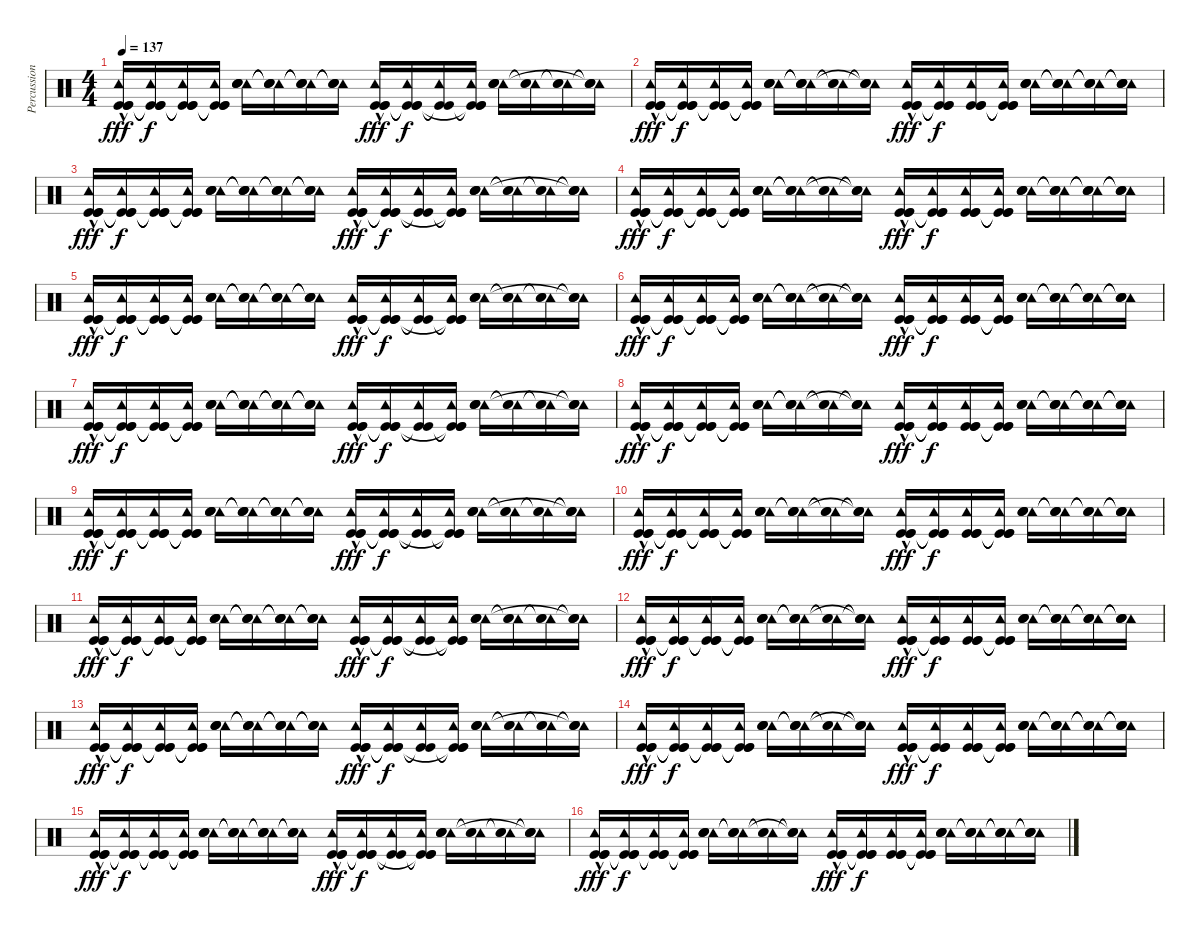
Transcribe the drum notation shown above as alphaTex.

\track ("Percussion" "Percussion") {instrument percussion}
\staff {score}
\articulation defaults
\ts (4 4)
\tempo 137
\clef neutral
\ks c
("Tambourine (hit)"{hac} "Kick (hit)" "Kick (hit)" "Kick (hit)").16{dy fff} ("Tambourine (hit)" "Kick (hit)"{t} "Kick (hit)"{t} "Kick (hit)"{t}).16{dy f} ("Tambourine (hit)" "Kick (hit)"{t} "Kick (hit)"{t} "Kick (hit)"{t}).16 ("Tambourine (hit)" "Kick (hit)"{t} "Kick (hit)"{t} "Kick (hit)"{t}).16 ("Tambourine (hit)" "Snare (hit) 2" "Snare (hit) 2" "Snare (hit) 2").16 ("Tambourine (hit)" "Snare (hit) 2"{t} "Snare (hit) 2"{t} "Snare (hit) 2"{t}).16 ("Tambourine (hit)" "Snare (hit) 2"{t} "Snare (hit) 2"{t} "Snare (hit) 2"{t}).16 ("Tambourine (hit)" "Snare (hit) 2"{t} "Snare (hit) 2"{t} "Snare (hit) 2"{t}).16 ("Tambourine (hit)"{hac} "Kick (hit)" "Kick (hit)" "Kick (hit)").16{dy fff} ("Tambourine (hit)" "Kick (hit)"{t} "Kick (hit)"{t} "Kick (hit)"{t}).16{dy f} ("Tambourine (hit)" "Kick (hit)"{t} "Kick (hit)"{t}).16 ("Tambourine (hit)" "Kick (hit)"{t} "Kick (hit)"{t} "Kick (hit)"{t}).16 ("Tambourine (hit)" "Snare (hit) 2" "Snare (hit) 2" "Snare (hit) 2").16 ("Tambourine (hit)" "Snare (hit) 2"{t} "Snare (hit) 2"{t}).16 ("Tambourine (hit)" "Snare (hit) 2"{t} "Snare (hit) 2"{t}).16 ("Tambourine (hit)" "Snare (hit) 2"{t} "Snare (hit) 2"{t} "Snare (hit) 2"{t}).16 |
("Tambourine (hit)"{hac} "Kick (hit)" "Kick (hit)" "Kick (hit)").16{dy fff} ("Tambourine (hit)" "Kick (hit)"{t} "Kick (hit)"{t} "Kick (hit)"{t}).16{dy f} ("Tambourine (hit)" "Kick (hit)"{t} "Kick (hit)"{t} "Kick (hit)"{t}).16 ("Tambourine (hit)" "Kick (hit)"{t} "Kick (hit)"{t} "Kick (hit)"{t}).16 ("Tambourine (hit)" "Snare (hit) 2" "Snare (hit) 2" "Snare (hit) 2").16 ("Tambourine (hit)" "Snare (hit) 2"{t} "Snare (hit) 2"{t} "Snare (hit) 2"{t}).16 ("Tambourine (hit)" "Snare (hit) 2"{t} "Snare (hit) 2"{t}).16 ("Tambourine (hit)" "Snare (hit) 2"{t} "Snare (hit) 2"{t} "Snare (hit) 2"{t}).16 ("Tambourine (hit)"{hac} "Kick (hit)" "Kick (hit)" "Kick (hit)").16{dy fff} ("Tambourine (hit)" "Kick (hit)"{t} "Kick (hit)"{t} "Kick (hit)"{t}).16{dy f} ("Tambourine (hit)" "Kick (hit)" "Kick (hit)" "Kick (hit)").16 ("Tambourine (hit)" "Kick (hit)"{t} "Kick (hit)"{t} "Kick (hit)"{t}).16 ("Tambourine (hit)" "Snare (hit) 2" "Snare (hit) 2" "Snare (hit) 2").16 ("Tambourine (hit)" "Snare (hit) 2"{t} "Snare (hit) 2"{t} "Snare (hit) 2"{t}).16 ("Tambourine (hit)" "Snare (hit) 2"{t} "Snare (hit) 2"{t} "Snare (hit) 2"{t}).16 ("Tambourine (hit)" "Snare (hit) 2"{t} "Snare (hit) 2"{t} "Snare (hit) 2"{t}).16 |
("Tambourine (hit)"{hac} "Kick (hit)" "Kick (hit)" "Kick (hit)").16{dy fff} ("Tambourine (hit)" "Kick (hit)"{t} "Kick (hit)"{t} "Kick (hit)"{t}).16{dy f} ("Tambourine (hit)" "Kick (hit)"{t} "Kick (hit)"{t} "Kick (hit)"{t}).16 ("Tambourine (hit)" "Kick (hit)"{t} "Kick (hit)"{t} "Kick (hit)"{t}).16 ("Tambourine (hit)" "Snare (hit) 2" "Snare (hit) 2" "Snare (hit) 2").16 ("Tambourine (hit)" "Snare (hit) 2"{t} "Snare (hit) 2"{t} "Snare (hit) 2"{t}).16 ("Tambourine (hit)" "Snare (hit) 2"{t} "Snare (hit) 2"{t} "Snare (hit) 2"{t}).16 ("Tambourine (hit)" "Snare (hit) 2"{t} "Snare (hit) 2"{t} "Snare (hit) 2"{t}).16 ("Tambourine (hit)"{hac} "Kick (hit)" "Kick (hit)" "Kick (hit)").16{dy fff} ("Tambourine (hit)" "Kick (hit)"{t} "Kick (hit)"{t} "Kick (hit)"{t}).16{dy f} ("Tambourine (hit)" "Kick (hit)"{t} "Kick (hit)"{t}).16 ("Tambourine (hit)" "Kick (hit)"{t} "Kick (hit)"{t} "Kick (hit)"{t}).16 ("Tambourine (hit)" "Snare (hit) 2" "Snare (hit) 2" "Snare (hit) 2").16 ("Tambourine (hit)" "Snare (hit) 2"{t} "Snare (hit) 2"{t}).16 ("Tambourine (hit)" "Snare (hit) 2"{t} "Snare (hit) 2"{t}).16 ("Tambourine (hit)" "Snare (hit) 2"{t} "Snare (hit) 2"{t} "Snare (hit) 2"{t}).16 |
("Tambourine (hit)"{hac} "Kick (hit)" "Kick (hit)" "Kick (hit)").16{dy fff} ("Tambourine (hit)" "Kick (hit)"{t} "Kick (hit)"{t} "Kick (hit)"{t}).16{dy f} ("Tambourine (hit)" "Kick (hit)"{t} "Kick (hit)"{t} "Kick (hit)"{t}).16 ("Tambourine (hit)" "Kick (hit)"{t} "Kick (hit)"{t} "Kick (hit)"{t}).16 ("Tambourine (hit)" "Snare (hit) 2" "Snare (hit) 2" "Snare (hit) 2").16 ("Tambourine (hit)" "Snare (hit) 2"{t} "Snare (hit) 2"{t} "Snare (hit) 2"{t}).16 ("Tambourine (hit)" "Snare (hit) 2"{t} "Snare (hit) 2"{t}).16 ("Tambourine (hit)" "Snare (hit) 2"{t} "Snare (hit) 2"{t} "Snare (hit) 2"{t}).16 ("Tambourine (hit)"{hac} "Kick (hit)" "Kick (hit)" "Kick (hit)").16{dy fff} ("Tambourine (hit)" "Kick (hit)"{t} "Kick (hit)"{t} "Kick (hit)"{t}).16{dy f} ("Tambourine (hit)" "Kick (hit)" "Kick (hit)" "Kick (hit)").16 ("Tambourine (hit)" "Kick (hit)"{t} "Kick (hit)"{t} "Kick (hit)"{t}).16 ("Tambourine (hit)" "Snare (hit) 2" "Snare (hit) 2" "Snare (hit) 2").16 ("Tambourine (hit)" "Snare (hit) 2"{t} "Snare (hit) 2"{t} "Snare (hit) 2"{t}).16 ("Tambourine (hit)" "Snare (hit) 2"{t} "Snare (hit) 2"{t} "Snare (hit) 2"{t}).16 ("Tambourine (hit)" "Snare (hit) 2"{t} "Snare (hit) 2"{t} "Snare (hit) 2"{t}).16 |
("Tambourine (hit)"{hac} "Kick (hit)" "Kick (hit)" "Kick (hit)").16{dy fff} ("Tambourine (hit)" "Kick (hit)"{t} "Kick (hit)"{t} "Kick (hit)"{t}).16{dy f} ("Tambourine (hit)" "Kick (hit)"{t} "Kick (hit)"{t} "Kick (hit)"{t}).16 ("Tambourine (hit)" "Kick (hit)"{t} "Kick (hit)"{t} "Kick (hit)"{t}).16 ("Tambourine (hit)" "Snare (hit) 2" "Snare (hit) 2" "Snare (hit) 2").16 ("Tambourine (hit)" "Snare (hit) 2"{t} "Snare (hit) 2"{t} "Snare (hit) 2"{t}).16 ("Tambourine (hit)" "Snare (hit) 2"{t} "Snare (hit) 2"{t} "Snare (hit) 2"{t}).16 ("Tambourine (hit)" "Snare (hit) 2"{t} "Snare (hit) 2"{t} "Snare (hit) 2"{t}).16 ("Tambourine (hit)"{hac} "Kick (hit)" "Kick (hit)" "Kick (hit)").16{dy fff} ("Tambourine (hit)" "Kick (hit)"{t} "Kick (hit)"{t} "Kick (hit)"{t}).16{dy f} ("Tambourine (hit)" "Kick (hit)"{t} "Kick (hit)"{t}).16 ("Tambourine (hit)" "Kick (hit)"{t} "Kick (hit)"{t} "Kick (hit)"{t}).16 ("Tambourine (hit)" "Snare (hit) 2" "Snare (hit) 2" "Snare (hit) 2").16 ("Tambourine (hit)" "Snare (hit) 2"{t} "Snare (hit) 2"{t}).16 ("Tambourine (hit)" "Snare (hit) 2"{t} "Snare (hit) 2"{t}).16 ("Tambourine (hit)" "Snare (hit) 2"{t} "Snare (hit) 2"{t} "Snare (hit) 2"{t}).16 |
("Tambourine (hit)"{hac} "Kick (hit)" "Kick (hit)" "Kick (hit)").16{dy fff} ("Tambourine (hit)" "Kick (hit)"{t} "Kick (hit)"{t} "Kick (hit)"{t}).16{dy f} ("Tambourine (hit)" "Kick (hit)"{t} "Kick (hit)"{t} "Kick (hit)"{t}).16 ("Tambourine (hit)" "Kick (hit)"{t} "Kick (hit)"{t} "Kick (hit)"{t}).16 ("Tambourine (hit)" "Snare (hit) 2" "Snare (hit) 2" "Snare (hit) 2").16 ("Tambourine (hit)" "Snare (hit) 2"{t} "Snare (hit) 2"{t} "Snare (hit) 2"{t}).16 ("Tambourine (hit)" "Snare (hit) 2"{t} "Snare (hit) 2"{t}).16 ("Tambourine (hit)" "Snare (hit) 2"{t} "Snare (hit) 2"{t} "Snare (hit) 2"{t}).16 ("Tambourine (hit)"{hac} "Kick (hit)" "Kick (hit)" "Kick (hit)").16{dy fff} ("Tambourine (hit)" "Kick (hit)"{t} "Kick (hit)"{t} "Kick (hit)"{t}).16{dy f} ("Tambourine (hit)" "Kick (hit)" "Kick (hit)" "Kick (hit)").16 ("Tambourine (hit)" "Kick (hit)"{t} "Kick (hit)"{t} "Kick (hit)"{t}).16 ("Tambourine (hit)" "Snare (hit) 2" "Snare (hit) 2" "Snare (hit) 2").16 ("Tambourine (hit)" "Snare (hit) 2"{t} "Snare (hit) 2"{t} "Snare (hit) 2"{t}).16 ("Tambourine (hit)" "Snare (hit) 2"{t} "Snare (hit) 2"{t} "Snare (hit) 2"{t}).16 ("Tambourine (hit)" "Snare (hit) 2"{t} "Snare (hit) 2"{t} "Snare (hit) 2"{t}).16 |
("Tambourine (hit)"{hac} "Kick (hit)" "Kick (hit)" "Kick (hit)").16{dy fff} ("Tambourine (hit)" "Kick (hit)"{t} "Kick (hit)"{t} "Kick (hit)"{t}).16{dy f} ("Tambourine (hit)" "Kick (hit)"{t} "Kick (hit)"{t} "Kick (hit)"{t}).16 ("Tambourine (hit)" "Kick (hit)"{t} "Kick (hit)"{t} "Kick (hit)"{t}).16 ("Tambourine (hit)" "Snare (hit) 2" "Snare (hit) 2" "Snare (hit) 2").16 ("Tambourine (hit)" "Snare (hit) 2"{t} "Snare (hit) 2"{t} "Snare (hit) 2"{t}).16 ("Tambourine (hit)" "Snare (hit) 2"{t} "Snare (hit) 2"{t} "Snare (hit) 2"{t}).16 ("Tambourine (hit)" "Snare (hit) 2"{t} "Snare (hit) 2"{t} "Snare (hit) 2"{t}).16 ("Tambourine (hit)"{hac} "Kick (hit)" "Kick (hit)" "Kick (hit)").16{dy fff} ("Tambourine (hit)" "Kick (hit)"{t} "Kick (hit)"{t} "Kick (hit)"{t}).16{dy f} ("Tambourine (hit)" "Kick (hit)"{t} "Kick (hit)"{t}).16 ("Tambourine (hit)" "Kick (hit)"{t} "Kick (hit)"{t} "Kick (hit)"{t}).16 ("Tambourine (hit)" "Snare (hit) 2" "Snare (hit) 2" "Snare (hit) 2").16 ("Tambourine (hit)" "Snare (hit) 2"{t} "Snare (hit) 2"{t}).16 ("Tambourine (hit)" "Snare (hit) 2"{t} "Snare (hit) 2"{t}).16 ("Tambourine (hit)" "Snare (hit) 2"{t} "Snare (hit) 2"{t} "Snare (hit) 2"{t}).16 |
("Tambourine (hit)"{hac} "Kick (hit)" "Kick (hit)" "Kick (hit)").16{dy fff} ("Tambourine (hit)" "Kick (hit)"{t} "Kick (hit)"{t} "Kick (hit)"{t}).16{dy f} ("Tambourine (hit)" "Kick (hit)"{t} "Kick (hit)"{t} "Kick (hit)"{t}).16 ("Tambourine (hit)" "Kick (hit)"{t} "Kick (hit)"{t} "Kick (hit)"{t}).16 ("Tambourine (hit)" "Snare (hit) 2" "Snare (hit) 2" "Snare (hit) 2").16 ("Tambourine (hit)" "Snare (hit) 2"{t} "Snare (hit) 2"{t} "Snare (hit) 2"{t}).16 ("Tambourine (hit)" "Snare (hit) 2"{t} "Snare (hit) 2"{t}).16 ("Tambourine (hit)" "Snare (hit) 2"{t} "Snare (hit) 2"{t} "Snare (hit) 2"{t}).16 ("Tambourine (hit)"{hac} "Kick (hit)" "Kick (hit)" "Kick (hit)").16{dy fff} ("Tambourine (hit)" "Kick (hit)"{t} "Kick (hit)"{t} "Kick (hit)"{t}).16{dy f} ("Tambourine (hit)" "Kick (hit)" "Kick (hit)" "Kick (hit)").16 ("Tambourine (hit)" "Kick (hit)"{t} "Kick (hit)"{t} "Kick (hit)"{t}).16 ("Tambourine (hit)" "Snare (hit) 2" "Snare (hit) 2" "Snare (hit) 2").16 ("Tambourine (hit)" "Snare (hit) 2"{t} "Snare (hit) 2"{t} "Snare (hit) 2"{t}).16 ("Tambourine (hit)" "Snare (hit) 2"{t} "Snare (hit) 2"{t} "Snare (hit) 2"{t}).16 ("Tambourine (hit)" "Snare (hit) 2"{t} "Snare (hit) 2"{t} "Snare (hit) 2"{t}).16 |
("Tambourine (hit)"{hac} "Kick (hit)" "Kick (hit)" "Kick (hit)").16{dy fff} ("Tambourine (hit)" "Kick (hit)"{t} "Kick (hit)"{t} "Kick (hit)"{t}).16{dy f} ("Tambourine (hit)" "Kick (hit)"{t} "Kick (hit)"{t} "Kick (hit)"{t}).16 ("Tambourine (hit)" "Kick (hit)"{t} "Kick (hit)"{t} "Kick (hit)"{t}).16 ("Tambourine (hit)" "Snare (hit) 2" "Snare (hit) 2" "Snare (hit) 2").16 ("Tambourine (hit)" "Snare (hit) 2"{t} "Snare (hit) 2"{t} "Snare (hit) 2"{t}).16 ("Tambourine (hit)" "Snare (hit) 2"{t} "Snare (hit) 2"{t} "Snare (hit) 2"{t}).16 ("Tambourine (hit)" "Snare (hit) 2"{t} "Snare (hit) 2"{t} "Snare (hit) 2"{t}).16 ("Tambourine (hit)"{hac} "Kick (hit)" "Kick (hit)" "Kick (hit)").16{dy fff} ("Tambourine (hit)" "Kick (hit)"{t} "Kick (hit)"{t} "Kick (hit)"{t}).16{dy f} ("Tambourine (hit)" "Kick (hit)"{t} "Kick (hit)"{t}).16 ("Tambourine (hit)" "Kick (hit)"{t} "Kick (hit)"{t} "Kick (hit)"{t}).16 ("Tambourine (hit)" "Snare (hit) 2" "Snare (hit) 2" "Snare (hit) 2").16 ("Tambourine (hit)" "Snare (hit) 2"{t} "Snare (hit) 2"{t}).16 ("Tambourine (hit)" "Snare (hit) 2"{t} "Snare (hit) 2"{t}).16 ("Tambourine (hit)" "Snare (hit) 2"{t} "Snare (hit) 2"{t} "Snare (hit) 2"{t}).16 |
("Tambourine (hit)"{hac} "Kick (hit)" "Kick (hit)" "Kick (hit)").16{dy fff} ("Tambourine (hit)" "Kick (hit)"{t} "Kick (hit)"{t} "Kick (hit)"{t}).16{dy f} ("Tambourine (hit)" "Kick (hit)"{t} "Kick (hit)"{t} "Kick (hit)"{t}).16 ("Tambourine (hit)" "Kick (hit)"{t} "Kick (hit)"{t} "Kick (hit)"{t}).16 ("Tambourine (hit)" "Snare (hit) 2" "Snare (hit) 2" "Snare (hit) 2").16 ("Tambourine (hit)" "Snare (hit) 2"{t} "Snare (hit) 2"{t} "Snare (hit) 2"{t}).16 ("Tambourine (hit)" "Snare (hit) 2"{t} "Snare (hit) 2"{t}).16 ("Tambourine (hit)" "Snare (hit) 2"{t} "Snare (hit) 2"{t} "Snare (hit) 2"{t}).16 ("Tambourine (hit)"{hac} "Kick (hit)" "Kick (hit)" "Kick (hit)").16{dy fff} ("Tambourine (hit)" "Kick (hit)"{t} "Kick (hit)"{t} "Kick (hit)"{t}).16{dy f} ("Tambourine (hit)" "Kick (hit)" "Kick (hit)" "Kick (hit)").16 ("Tambourine (hit)" "Kick (hit)"{t} "Kick (hit)"{t} "Kick (hit)"{t}).16 ("Tambourine (hit)" "Snare (hit) 2" "Snare (hit) 2" "Snare (hit) 2").16 ("Tambourine (hit)" "Snare (hit) 2"{t} "Snare (hit) 2"{t} "Snare (hit) 2"{t}).16 ("Tambourine (hit)" "Snare (hit) 2"{t} "Snare (hit) 2"{t} "Snare (hit) 2"{t}).16 ("Tambourine (hit)" "Snare (hit) 2"{t} "Snare (hit) 2"{t} "Snare (hit) 2"{t}).16 |
("Tambourine (hit)"{hac} "Kick (hit)" "Kick (hit)" "Kick (hit)").16{dy fff} ("Tambourine (hit)" "Kick (hit)"{t} "Kick (hit)"{t} "Kick (hit)"{t}).16{dy f} ("Tambourine (hit)" "Kick (hit)"{t} "Kick (hit)"{t} "Kick (hit)"{t}).16 ("Tambourine (hit)" "Kick (hit)"{t} "Kick (hit)"{t} "Kick (hit)"{t}).16 ("Tambourine (hit)" "Snare (hit) 2" "Snare (hit) 2" "Snare (hit) 2").16 ("Tambourine (hit)" "Snare (hit) 2"{t} "Snare (hit) 2"{t} "Snare (hit) 2"{t}).16 ("Tambourine (hit)" "Snare (hit) 2"{t} "Snare (hit) 2"{t} "Snare (hit) 2"{t}).16 ("Tambourine (hit)" "Snare (hit) 2"{t} "Snare (hit) 2"{t} "Snare (hit) 2"{t}).16 ("Tambourine (hit)"{hac} "Kick (hit)" "Kick (hit)" "Kick (hit)").16{dy fff} ("Tambourine (hit)" "Kick (hit)"{t} "Kick (hit)"{t} "Kick (hit)"{t}).16{dy f} ("Tambourine (hit)" "Kick (hit)"{t} "Kick (hit)"{t}).16 ("Tambourine (hit)" "Kick (hit)"{t} "Kick (hit)"{t} "Kick (hit)"{t}).16 ("Tambourine (hit)" "Snare (hit) 2" "Snare (hit) 2" "Snare (hit) 2").16 ("Tambourine (hit)" "Snare (hit) 2"{t} "Snare (hit) 2"{t}).16 ("Tambourine (hit)" "Snare (hit) 2"{t} "Snare (hit) 2"{t}).16 ("Tambourine (hit)" "Snare (hit) 2"{t} "Snare (hit) 2"{t} "Snare (hit) 2"{t}).16 |
("Tambourine (hit)"{hac} "Kick (hit)" "Kick (hit)" "Kick (hit)").16{dy fff} ("Tambourine (hit)" "Kick (hit)"{t} "Kick (hit)"{t} "Kick (hit)"{t}).16{dy f} ("Tambourine (hit)" "Kick (hit)"{t} "Kick (hit)"{t} "Kick (hit)"{t}).16 ("Tambourine (hit)" "Kick (hit)"{t} "Kick (hit)"{t} "Kick (hit)"{t}).16 ("Tambourine (hit)" "Snare (hit) 2" "Snare (hit) 2" "Snare (hit) 2").16 ("Tambourine (hit)" "Snare (hit) 2"{t} "Snare (hit) 2"{t} "Snare (hit) 2"{t}).16 ("Tambourine (hit)" "Snare (hit) 2"{t} "Snare (hit) 2"{t}).16 ("Tambourine (hit)" "Snare (hit) 2"{t} "Snare (hit) 2"{t} "Snare (hit) 2"{t}).16 ("Tambourine (hit)"{hac} "Kick (hit)" "Kick (hit)" "Kick (hit)").16{dy fff} ("Tambourine (hit)" "Kick (hit)"{t} "Kick (hit)"{t} "Kick (hit)"{t}).16{dy f} ("Tambourine (hit)" "Kick (hit)" "Kick (hit)" "Kick (hit)").16 ("Tambourine (hit)" "Kick (hit)"{t} "Kick (hit)"{t} "Kick (hit)"{t}).16 ("Tambourine (hit)" "Snare (hit) 2" "Snare (hit) 2" "Snare (hit) 2").16 ("Tambourine (hit)" "Snare (hit) 2"{t} "Snare (hit) 2"{t} "Snare (hit) 2"{t}).16 ("Tambourine (hit)" "Snare (hit) 2"{t} "Snare (hit) 2"{t} "Snare (hit) 2"{t}).16 ("Tambourine (hit)" "Snare (hit) 2"{t} "Snare (hit) 2"{t} "Snare (hit) 2"{t}).16 |
("Tambourine (hit)"{hac} "Kick (hit)" "Kick (hit)" "Kick (hit)").16{dy fff} ("Tambourine (hit)" "Kick (hit)"{t} "Kick (hit)"{t} "Kick (hit)"{t}).16{dy f} ("Tambourine (hit)" "Kick (hit)"{t} "Kick (hit)"{t} "Kick (hit)"{t}).16 ("Tambourine (hit)" "Kick (hit)"{t} "Kick (hit)"{t} "Kick (hit)"{t}).16 ("Tambourine (hit)" "Snare (hit) 2" "Snare (hit) 2" "Snare (hit) 2").16 ("Tambourine (hit)" "Snare (hit) 2"{t} "Snare (hit) 2"{t} "Snare (hit) 2"{t}).16 ("Tambourine (hit)" "Snare (hit) 2"{t} "Snare (hit) 2"{t} "Snare (hit) 2"{t}).16 ("Tambourine (hit)" "Snare (hit) 2"{t} "Snare (hit) 2"{t} "Snare (hit) 2"{t}).16 ("Tambourine (hit)"{hac} "Kick (hit)" "Kick (hit)" "Kick (hit)").16{dy fff} ("Tambourine (hit)" "Kick (hit)"{t} "Kick (hit)"{t} "Kick (hit)"{t}).16{dy f} ("Tambourine (hit)" "Kick (hit)"{t} "Kick (hit)"{t}).16 ("Tambourine (hit)" "Kick (hit)"{t} "Kick (hit)"{t} "Kick (hit)"{t}).16 ("Tambourine (hit)" "Snare (hit) 2" "Snare (hit) 2" "Snare (hit) 2").16 ("Tambourine (hit)" "Snare (hit) 2"{t} "Snare (hit) 2"{t}).16 ("Tambourine (hit)" "Snare (hit) 2"{t} "Snare (hit) 2"{t}).16 ("Tambourine (hit)" "Snare (hit) 2"{t} "Snare (hit) 2"{t} "Snare (hit) 2"{t}).16 |
("Tambourine (hit)"{hac} "Kick (hit)" "Kick (hit)" "Kick (hit)").16{dy fff} ("Tambourine (hit)" "Kick (hit)"{t} "Kick (hit)"{t} "Kick (hit)"{t}).16{dy f} ("Tambourine (hit)" "Kick (hit)"{t} "Kick (hit)"{t} "Kick (hit)"{t}).16 ("Tambourine (hit)" "Kick (hit)"{t} "Kick (hit)"{t} "Kick (hit)"{t}).16 ("Tambourine (hit)" "Snare (hit) 2" "Snare (hit) 2" "Snare (hit) 2").16 ("Tambourine (hit)" "Snare (hit) 2"{t} "Snare (hit) 2"{t} "Snare (hit) 2"{t}).16 ("Tambourine (hit)" "Snare (hit) 2"{t} "Snare (hit) 2"{t}).16 ("Tambourine (hit)" "Snare (hit) 2"{t} "Snare (hit) 2"{t} "Snare (hit) 2"{t}).16 ("Tambourine (hit)"{hac} "Kick (hit)" "Kick (hit)" "Kick (hit)").16{dy fff} ("Tambourine (hit)" "Kick (hit)"{t} "Kick (hit)"{t} "Kick (hit)"{t}).16{dy f} ("Tambourine (hit)" "Kick (hit)" "Kick (hit)" "Kick (hit)").16 ("Tambourine (hit)" "Kick (hit)"{t} "Kick (hit)"{t} "Kick (hit)"{t}).16 ("Tambourine (hit)" "Snare (hit) 2" "Snare (hit) 2" "Snare (hit) 2").16 ("Tambourine (hit)" "Snare (hit) 2"{t} "Snare (hit) 2"{t} "Snare (hit) 2"{t}).16 ("Tambourine (hit)" "Snare (hit) 2"{t} "Snare (hit) 2"{t} "Snare (hit) 2"{t}).16 ("Tambourine (hit)" "Snare (hit) 2"{t} "Snare (hit) 2"{t} "Snare (hit) 2"{t}).16 |
("Tambourine (hit)"{hac} "Kick (hit)" "Kick (hit)" "Kick (hit)").16{dy fff} ("Tambourine (hit)" "Kick (hit)"{t} "Kick (hit)"{t} "Kick (hit)"{t}).16{dy f} ("Tambourine (hit)" "Kick (hit)"{t} "Kick (hit)"{t} "Kick (hit)"{t}).16 ("Tambourine (hit)" "Kick (hit)"{t} "Kick (hit)"{t} "Kick (hit)"{t}).16 ("Tambourine (hit)" "Snare (hit) 2" "Snare (hit) 2" "Snare (hit) 2").16 ("Tambourine (hit)" "Snare (hit) 2"{t} "Snare (hit) 2"{t} "Snare (hit) 2"{t}).16 ("Tambourine (hit)" "Snare (hit) 2"{t} "Snare (hit) 2"{t} "Snare (hit) 2"{t}).16 ("Tambourine (hit)" "Snare (hit) 2"{t} "Snare (hit) 2"{t} "Snare (hit) 2"{t}).16 ("Tambourine (hit)"{hac} "Kick (hit)" "Kick (hit)" "Kick (hit)").16{dy fff} ("Tambourine (hit)" "Kick (hit)"{t} "Kick (hit)"{t} "Kick (hit)"{t}).16{dy f} ("Tambourine (hit)" "Kick (hit)"{t} "Kick (hit)"{t}).16 ("Tambourine (hit)" "Kick (hit)"{t} "Kick (hit)"{t} "Kick (hit)"{t}).16 ("Tambourine (hit)" "Snare (hit) 2" "Snare (hit) 2" "Snare (hit) 2").16 ("Tambourine (hit)" "Snare (hit) 2"{t} "Snare (hit) 2"{t}).16 ("Tambourine (hit)" "Snare (hit) 2"{t} "Snare (hit) 2"{t}).16 ("Tambourine (hit)" "Snare (hit) 2"{t} "Snare (hit) 2"{t} "Snare (hit) 2"{t}).16 |
("Tambourine (hit)"{hac} "Kick (hit)" "Kick (hit)" "Kick (hit)").16{dy fff} ("Tambourine (hit)" "Kick (hit)"{t} "Kick (hit)"{t} "Kick (hit)"{t}).16{dy f} ("Tambourine (hit)" "Kick (hit)"{t} "Kick (hit)"{t} "Kick (hit)"{t}).16 ("Tambourine (hit)" "Kick (hit)"{t} "Kick (hit)"{t} "Kick (hit)"{t}).16 ("Tambourine (hit)" "Snare (hit) 2" "Snare (hit) 2" "Snare (hit) 2").16 ("Tambourine (hit)" "Snare (hit) 2"{t} "Snare (hit) 2"{t} "Snare (hit) 2"{t}).16 ("Tambourine (hit)" "Snare (hit) 2"{t} "Snare (hit) 2"{t}).16 ("Tambourine (hit)" "Snare (hit) 2"{t} "Snare (hit) 2"{t} "Snare (hit) 2"{t}).16 ("Tambourine (hit)"{hac} "Kick (hit)" "Kick (hit)" "Kick (hit)").16{dy fff} ("Tambourine (hit)" "Kick (hit)"{t} "Kick (hit)"{t} "Kick (hit)"{t}).16{dy f} ("Tambourine (hit)" "Kick (hit)" "Kick (hit)" "Kick (hit)").16 ("Tambourine (hit)" "Kick (hit)"{t} "Kick (hit)"{t} "Kick (hit)"{t}).16 ("Tambourine (hit)" "Snare (hit) 2" "Snare (hit) 2" "Snare (hit) 2").16 ("Tambourine (hit)" "Snare (hit) 2"{t} "Snare (hit) 2"{t} "Snare (hit) 2"{t}).16 ("Tambourine (hit)" "Snare (hit) 2"{t} "Snare (hit) 2"{t} "Snare (hit) 2"{t}).16 ("Tambourine (hit)" "Snare (hit) 2"{t} "Snare (hit) 2"{t} "Snare (hit) 2"{t}).16
